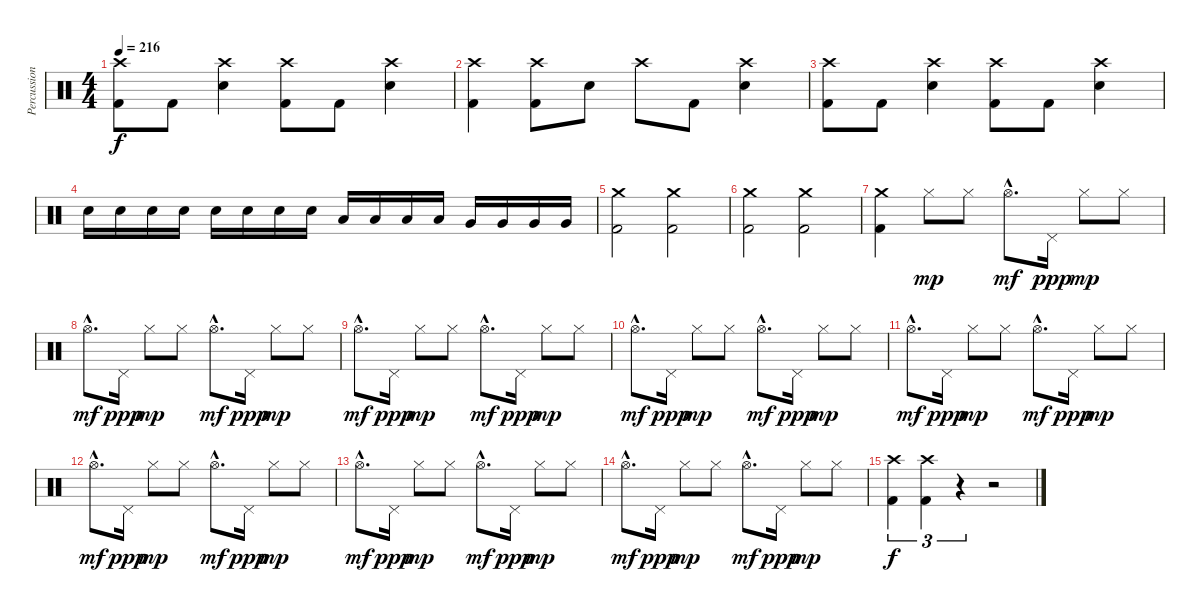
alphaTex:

\track ("Percussion" "Percussion") {instrument percussion}
\staff {score}
\articulation defaults
\ts (4 4)
\tempo 216
\clef neutral
\ks c
("Kick (hit) 2" "Crash high (hit)").8{dy f} "Kick (hit) 2".8 ("Electric Snare (hit)" "Crash high (hit)").4 ("Kick (hit) 2" "Crash high (hit)").8 "Kick (hit) 2".8 ("Electric Snare (hit)" "Crash high (hit)").4 |
("Kick (hit) 2" "Crash high (hit)").4 ("Kick (hit) 2" "Crash high (hit)").8 "Electric Snare (hit)".8 "Crash high (hit)".8 "Kick (hit) 2".8 ("Electric Snare (hit)" "Crash high (hit)").4 |
("Kick (hit) 2" "Crash high (hit)").8 "Kick (hit) 2".8 ("Electric Snare (hit)" "Crash high (hit)").4 ("Kick (hit) 2" "Crash high (hit)").8 "Kick (hit) 2".8 ("Electric Snare (hit)" "Crash high (hit)").4 |
"Electric Snare (hit)".16 "Electric Snare (hit)".16 "Electric Snare (hit)".16 "Electric Snare (hit)".16 "Electric Snare (hit)".16 "Electric Snare (hit)".16 "Electric Snare (hit)".16 "Electric Snare (hit)".16 "Low Tom (hit)".16 "Low Tom (hit)".16 "Low Tom (hit)".16 "Low Tom (hit)".16 "Very Low Tom (hit)".16 "Very Low Tom (hit)".16 "Very Low Tom (hit)".16 "Very Low Tom (hit)".16 |
("Kick (hit) 2" "Crash medium (hit)").2 ("Kick (hit) 2" "Crash medium (hit)").2 |
("Kick (hit) 2" "Crash medium (hit)").2 ("Kick (hit) 2" "Crash medium (hit)").2 |
("Kick (hit) 2" "Crash medium (hit)").4 "Hi-Hat (closed)".8{dy mp} "Hi-Hat (closed)".8 "Hi-Hat (open)"{hac}.8{d dy mf} "Pedal Hi-Hat (hit)".16{dy ppp} "Hi-Hat (closed)".8{dy mp} "Hi-Hat (closed)".8 |
"Hi-Hat (open)"{hac}.8{d dy mf} "Pedal Hi-Hat (hit)".16{dy ppp} "Hi-Hat (closed)".8{dy mp} "Hi-Hat (closed)".8 "Hi-Hat (open)"{hac}.8{d dy mf} "Pedal Hi-Hat (hit)".16{dy ppp} "Hi-Hat (closed)".8{dy mp} "Hi-Hat (closed)".8 |
"Hi-Hat (open)"{hac}.8{d dy mf} "Pedal Hi-Hat (hit)".16{dy ppp} "Hi-Hat (closed)".8{dy mp} "Hi-Hat (closed)".8 "Hi-Hat (open)"{hac}.8{d dy mf} "Pedal Hi-Hat (hit)".16{dy ppp} "Hi-Hat (closed)".8{dy mp} "Hi-Hat (closed)".8 |
"Hi-Hat (open)"{hac}.8{d dy mf} "Pedal Hi-Hat (hit)".16{dy ppp} "Hi-Hat (closed)".8{dy mp} "Hi-Hat (closed)".8 "Hi-Hat (open)"{hac}.8{d dy mf} "Pedal Hi-Hat (hit)".16{dy ppp} "Hi-Hat (closed)".8{dy mp} "Hi-Hat (closed)".8 |
"Hi-Hat (open)"{hac}.8{d dy mf} "Pedal Hi-Hat (hit)".16{dy ppp} "Hi-Hat (closed)".8{dy mp} "Hi-Hat (closed)".8 "Hi-Hat (open)"{hac}.8{d dy mf} "Pedal Hi-Hat (hit)".16{dy ppp} "Hi-Hat (closed)".8{dy mp} "Hi-Hat (closed)".8 |
"Hi-Hat (open)"{hac}.8{d dy mf} "Pedal Hi-Hat (hit)".16{dy ppp} "Hi-Hat (closed)".8{dy mp} "Hi-Hat (closed)".8 "Hi-Hat (open)"{hac}.8{d dy mf} "Pedal Hi-Hat (hit)".16{dy ppp} "Hi-Hat (closed)".8{dy mp} "Hi-Hat (closed)".8 |
"Hi-Hat (open)"{hac}.8{d dy mf} "Pedal Hi-Hat (hit)".16{dy ppp} "Hi-Hat (closed)".8{dy mp} "Hi-Hat (closed)".8 "Hi-Hat (open)"{hac}.8{d dy mf} "Pedal Hi-Hat (hit)".16{dy ppp} "Hi-Hat (closed)".8{dy mp} "Hi-Hat (closed)".8 |
"Hi-Hat (open)"{hac}.8{d dy mf} "Pedal Hi-Hat (hit)".16{dy ppp} "Hi-Hat (closed)".8{dy mp} "Hi-Hat (closed)".8 "Hi-Hat (open)"{hac}.8{d dy mf} "Pedal Hi-Hat (hit)".16{dy ppp} "Hi-Hat (closed)".8{dy mp} "Hi-Hat (closed)".8 |
("Kick (hit) 2" "Crash high (hit)").4{tu (3 2) dy f} ("Kick (hit) 2" "Crash high (hit)").4{tu (3 2)} r.4{tu (3 2)} r.2
